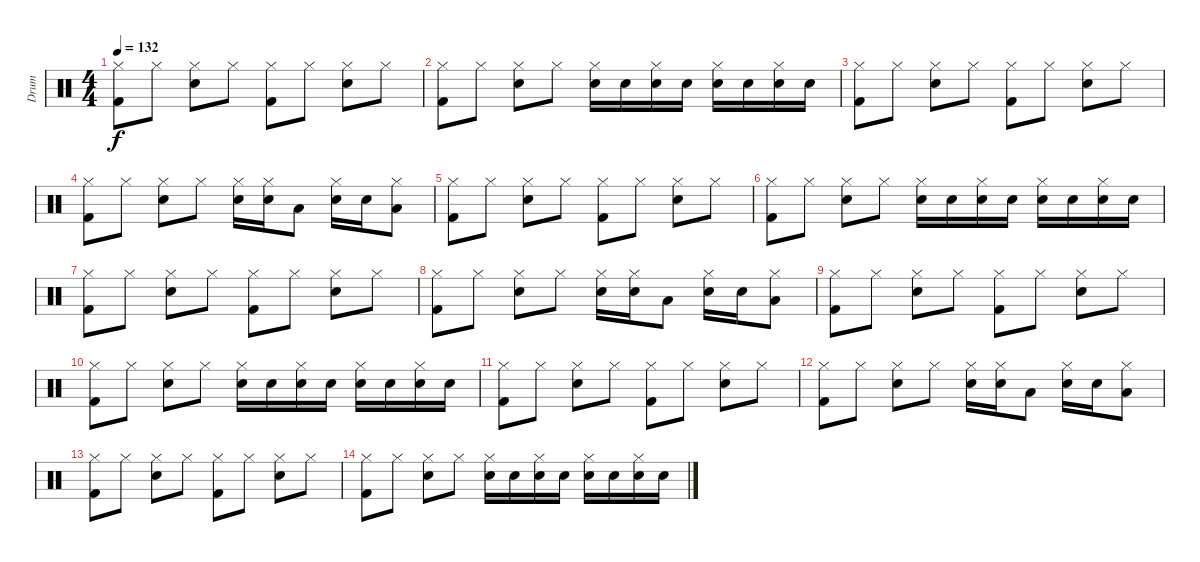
\track ("Drum" "Drum") {instrument percussion}
\staff {score}
\articulation defaults
\ts (4 4)
\tempo 132
\clef neutral
\ks c
("Hi-Hat (closed)" "Kick (hit) 2").8{dy f} "Hi-Hat (closed)".8 ("Hi-Hat (closed)" "Electric Snare (hit)").8 "Hi-Hat (closed)".8 ("Hi-Hat (closed)" "Kick (hit) 2").8 "Hi-Hat (closed)".8 ("Hi-Hat (closed)" "Electric Snare (hit)").8 "Hi-Hat (closed)".8 |
("Hi-Hat (closed)" "Kick (hit) 2").8 "Hi-Hat (closed)".8 ("Hi-Hat (closed)" "Electric Snare (hit)").8 "Hi-Hat (closed)".8 ("Hi-Hat (closed)" "Electric Snare (hit)").16 "Electric Snare (hit)".16 ("Hi-Hat (closed)" "Electric Snare (hit)").16 "Electric Snare (hit)".16 ("Hi-Hat (closed)" "Electric Snare (hit)").16 "Electric Snare (hit)".16 ("Hi-Hat (closed)" "Electric Snare (hit)").16 "Electric Snare (hit)".16 |
("Hi-Hat (closed)" "Kick (hit) 2").8 "Hi-Hat (closed)".8 ("Hi-Hat (closed)" "Electric Snare (hit)").8 "Hi-Hat (closed)".8 ("Hi-Hat (closed)" "Kick (hit) 2").8 "Hi-Hat (closed)".8 ("Hi-Hat (closed)" "Electric Snare (hit)").8 "Hi-Hat (closed)".8 |
("Hi-Hat (closed)" "Kick (hit) 2").8 "Hi-Hat (closed)".8 ("Hi-Hat (closed)" "Electric Snare (hit)").8 "Hi-Hat (closed)".8 ("Hi-Hat (closed)" "Electric Snare (hit)").16 ("Hi-Hat (closed)" "Electric Snare (hit)").16 "Low Floor Tom (hit)".8 ("Hi-Hat (closed)" "Electric Snare (hit)").16 "Electric Snare (hit)".16 ("Hi-Hat (closed)" "Low Tom (hit)").8 |
("Hi-Hat (closed)" "Kick (hit) 2").8 "Hi-Hat (closed)".8 ("Hi-Hat (closed)" "Electric Snare (hit)").8 "Hi-Hat (closed)".8 ("Hi-Hat (closed)" "Kick (hit) 2").8 "Hi-Hat (closed)".8 ("Hi-Hat (closed)" "Electric Snare (hit)").8 "Hi-Hat (closed)".8 |
("Hi-Hat (closed)" "Kick (hit) 2").8 "Hi-Hat (closed)".8 ("Hi-Hat (closed)" "Electric Snare (hit)").8 "Hi-Hat (closed)".8 ("Hi-Hat (closed)" "Electric Snare (hit)").16 "Electric Snare (hit)".16 ("Hi-Hat (closed)" "Electric Snare (hit)").16 "Electric Snare (hit)".16 ("Hi-Hat (closed)" "Electric Snare (hit)").16 "Electric Snare (hit)".16 ("Hi-Hat (closed)" "Electric Snare (hit)").16 "Electric Snare (hit)".16 |
("Hi-Hat (closed)" "Kick (hit) 2").8 "Hi-Hat (closed)".8 ("Hi-Hat (closed)" "Electric Snare (hit)").8 "Hi-Hat (closed)".8 ("Hi-Hat (closed)" "Kick (hit) 2").8 "Hi-Hat (closed)".8 ("Hi-Hat (closed)" "Electric Snare (hit)").8 "Hi-Hat (closed)".8 |
("Hi-Hat (closed)" "Kick (hit) 2").8 "Hi-Hat (closed)".8 ("Hi-Hat (closed)" "Electric Snare (hit)").8 "Hi-Hat (closed)".8 ("Hi-Hat (closed)" "Electric Snare (hit)").16 ("Hi-Hat (closed)" "Electric Snare (hit)").16 "Low Floor Tom (hit)".8 ("Hi-Hat (closed)" "Electric Snare (hit)").16 "Electric Snare (hit)".16 ("Hi-Hat (closed)" "Low Tom (hit)").8 |
("Hi-Hat (closed)" "Kick (hit) 2").8 "Hi-Hat (closed)".8 ("Hi-Hat (closed)" "Electric Snare (hit)").8 "Hi-Hat (closed)".8 ("Hi-Hat (closed)" "Kick (hit) 2").8 "Hi-Hat (closed)".8 ("Hi-Hat (closed)" "Electric Snare (hit)").8 "Hi-Hat (closed)".8 |
("Hi-Hat (closed)" "Kick (hit) 2").8 "Hi-Hat (closed)".8 ("Hi-Hat (closed)" "Electric Snare (hit)").8 "Hi-Hat (closed)".8 ("Hi-Hat (closed)" "Electric Snare (hit)").16 "Electric Snare (hit)".16 ("Hi-Hat (closed)" "Electric Snare (hit)").16 "Electric Snare (hit)".16 ("Hi-Hat (closed)" "Electric Snare (hit)").16 "Electric Snare (hit)".16 ("Hi-Hat (closed)" "Electric Snare (hit)").16 "Electric Snare (hit)".16 |
("Hi-Hat (closed)" "Kick (hit) 2").8 "Hi-Hat (closed)".8 ("Hi-Hat (closed)" "Electric Snare (hit)").8 "Hi-Hat (closed)".8 ("Hi-Hat (closed)" "Kick (hit) 2").8 "Hi-Hat (closed)".8 ("Hi-Hat (closed)" "Electric Snare (hit)").8 "Hi-Hat (closed)".8 |
("Hi-Hat (closed)" "Kick (hit) 2").8 "Hi-Hat (closed)".8 ("Hi-Hat (closed)" "Electric Snare (hit)").8 "Hi-Hat (closed)".8 ("Hi-Hat (closed)" "Electric Snare (hit)").16 ("Hi-Hat (closed)" "Electric Snare (hit)").16 "Low Floor Tom (hit)".8 ("Hi-Hat (closed)" "Electric Snare (hit)").16 "Electric Snare (hit)".16 ("Hi-Hat (closed)" "Low Tom (hit)").8 |
("Hi-Hat (closed)" "Kick (hit) 2").8 "Hi-Hat (closed)".8 ("Hi-Hat (closed)" "Electric Snare (hit)").8 "Hi-Hat (closed)".8 ("Hi-Hat (closed)" "Kick (hit) 2").8 "Hi-Hat (closed)".8 ("Hi-Hat (closed)" "Electric Snare (hit)").8 "Hi-Hat (closed)".8 |
("Hi-Hat (closed)" "Kick (hit) 2").8 "Hi-Hat (closed)".8 ("Hi-Hat (closed)" "Electric Snare (hit)").8 "Hi-Hat (closed)".8 ("Hi-Hat (closed)" "Electric Snare (hit)").16 "Electric Snare (hit)".16 ("Hi-Hat (closed)" "Electric Snare (hit)").16 "Electric Snare (hit)".16 ("Hi-Hat (closed)" "Electric Snare (hit)").16 "Electric Snare (hit)".16 ("Hi-Hat (closed)" "Electric Snare (hit)").16 "Electric Snare (hit)".16
